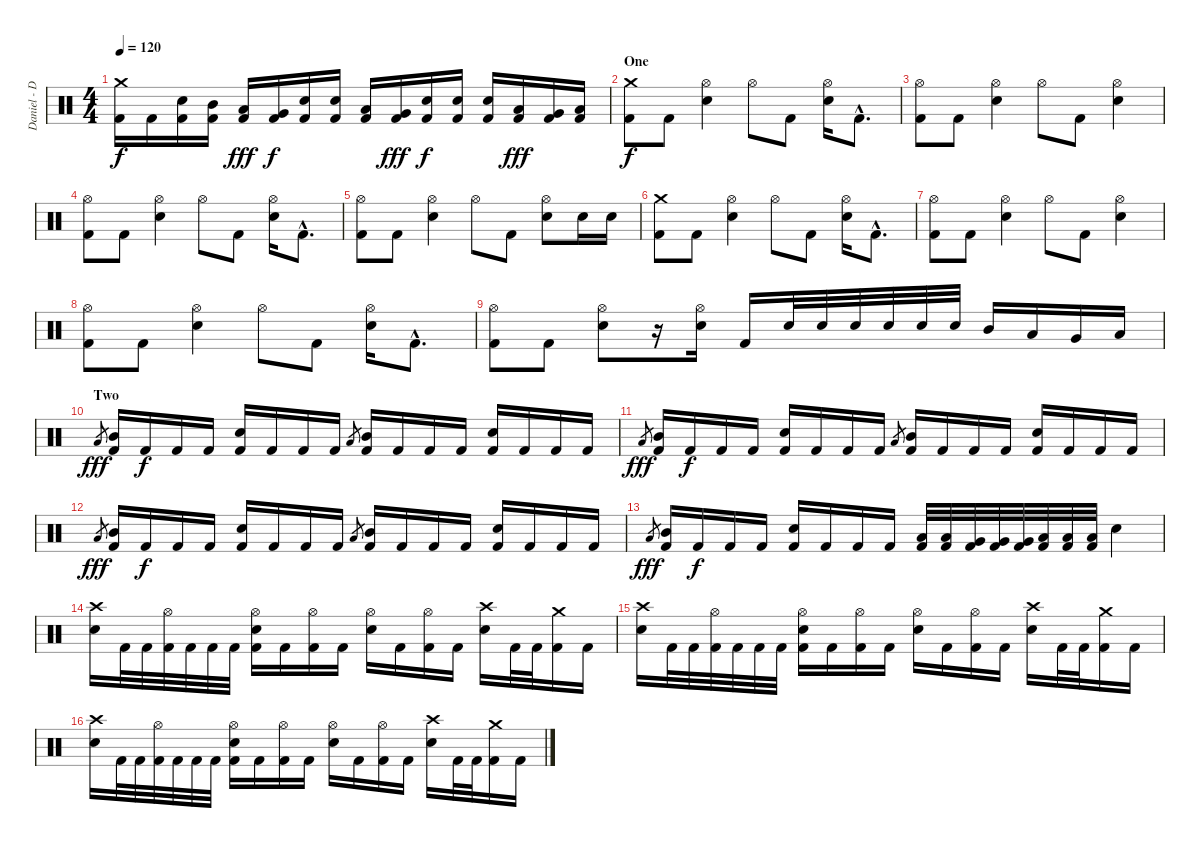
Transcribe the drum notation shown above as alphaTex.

\track ("Daniel - Drums" "Daniel - D") {instrument percussion}
\staff {score}
\articulation defaults
\ts (4 4)
\tempo 120
\clef neutral
\ks c
("Crash medium (hit)" "Kick (hit) 2").16{dy f} "Kick (hit) 2".16 ("Electric Snare (hit)" "Kick (hit) 2").16 ("Mid Tom (hit)" "Kick (hit) 2").16 ("Low Tom (hit)" "Kick (hit) 2").16{dy fff} ("Very Low Tom (hit)" "Kick (hit) 2").16{dy f} ("Electric Snare (hit)" "Kick (hit) 2").16 ("Electric Snare (hit)" "Kick (hit) 2").16 ("Low Tom (hit)" "Kick (hit) 2").16 ("Very Low Tom (hit)" "Kick (hit) 2").16{dy fff} ("Electric Snare (hit)" "Kick (hit) 2").16{dy f} ("Electric Snare (hit)" "Kick (hit) 2").16 ("Electric Snare (hit)" "Kick (hit) 2").16 ("Low Tom (hit)" "Kick (hit) 2").16{dy fff} ("Very Low Tom (hit)" "Kick (hit) 2").16 ("Low Floor Tom (hit)" "Kick (hit) 2").16 |
\section ("" "One")
("Crash medium (hit)" "Kick (hit) 2").8{dy f} "Kick (hit) 2".8 ("Hi-Hat (open)" "Electric Snare (hit)").4 "Hi-Hat (open)".8 "Kick (hit) 2".8 ("Hi-Hat (open)" "Electric Snare (hit)").16 "Kick (hit) 2"{hac}.8{d} |
("Hi-Hat (open)" "Kick (hit) 2").8 "Kick (hit) 2".8 ("Hi-Hat (open)" "Electric Snare (hit)").4 "Hi-Hat (open)".8 "Kick (hit) 2".8 ("Hi-Hat (open)" "Electric Snare (hit)").4 |
("Hi-Hat (open)" "Kick (hit) 2").8 "Kick (hit) 2".8 ("Hi-Hat (open)" "Electric Snare (hit)").4 "Hi-Hat (open)".8 "Kick (hit) 2".8 ("Hi-Hat (open)" "Electric Snare (hit)").16 "Kick (hit) 2"{hac}.8{d} |
("Hi-Hat (open)" "Kick (hit) 2").8 "Kick (hit) 2".8 ("Hi-Hat (open)" "Electric Snare (hit)").4 "Hi-Hat (open)".8 "Kick (hit) 2".8 ("Hi-Hat (open)" "Electric Snare (hit)").8 "Electric Snare (hit)".16 "Electric Snare (hit)".16 |
("Crash medium (hit)" "Kick (hit) 2").8 "Kick (hit) 2".8 ("Hi-Hat (open)" "Electric Snare (hit)").4 "Hi-Hat (open)".8 "Kick (hit) 2".8 ("Hi-Hat (open)" "Electric Snare (hit)").16 "Kick (hit) 2"{hac}.8{d} |
("Hi-Hat (open)" "Kick (hit) 2").8 "Kick (hit) 2".8 ("Hi-Hat (open)" "Electric Snare (hit)").4 "Hi-Hat (open)".8 "Kick (hit) 2".8 ("Hi-Hat (open)" "Electric Snare (hit)").4 |
("Hi-Hat (open)" "Kick (hit) 2").8 "Kick (hit) 2".8 ("Hi-Hat (open)" "Electric Snare (hit)").4 "Hi-Hat (open)".8 "Kick (hit) 2".8 ("Hi-Hat (open)" "Electric Snare (hit)").16 "Kick (hit) 2"{hac}.8{d} |
("Hi-Hat (open)" "Kick (hit) 2").8 "Kick (hit) 2".8 ("Hi-Hat (open)" "Electric Snare (hit)").8 r.16 ("Hi-Hat (open)" "Electric Snare (hit)").16 "Kick (hit) 2".16 "Electric Snare (hit)".32 "Electric Snare (hit)".32 "Electric Snare (hit)".32 "Electric Snare (hit)".32 "Electric Snare (hit)".32 "Electric Snare (hit)".32 "Mid Tom (hit)".16 "Low Tom (hit)".16 "Very Low Tom (hit)".16 "Low Floor Tom (hit)".16 |
\section ("" "Two")
"Low Tom (hit)".8{gr dy fff} ("Mid Tom (hit)" "Kick (hit) 2").16 "Kick (hit) 2".16{dy f} "Kick (hit) 2".16 "Kick (hit) 2".16 ("Electric Snare (hit)" "Kick (hit) 2").16 "Kick (hit) 2".16 "Kick (hit) 2".16 "Kick (hit) 2".16 "Low Tom (hit)".8{gr} ("Mid Tom (hit)" "Kick (hit) 2").16 "Kick (hit) 2".16 "Kick (hit) 2".16 "Kick (hit) 2".16 ("Electric Snare (hit)" "Kick (hit) 2").16 "Kick (hit) 2".16 "Kick (hit) 2".16 "Kick (hit) 2".16 |
"Low Tom (hit)".8{gr dy fff} ("Mid Tom (hit)" "Kick (hit) 2").16 "Kick (hit) 2".16{dy f} "Kick (hit) 2".16 "Kick (hit) 2".16 ("Electric Snare (hit)" "Kick (hit) 2").16 "Kick (hit) 2".16 "Kick (hit) 2".16 "Kick (hit) 2".16 "Low Tom (hit)".8{gr} ("Mid Tom (hit)" "Kick (hit) 2").16 "Kick (hit) 2".16 "Kick (hit) 2".16 "Kick (hit) 2".16 ("Electric Snare (hit)" "Kick (hit) 2").16 "Kick (hit) 2".16 "Kick (hit) 2".16 "Kick (hit) 2".16 |
"Low Tom (hit)".8{gr dy fff} ("Mid Tom (hit)" "Kick (hit) 2").16 "Kick (hit) 2".16{dy f} "Kick (hit) 2".16 "Kick (hit) 2".16 ("Electric Snare (hit)" "Kick (hit) 2").16 "Kick (hit) 2".16 "Kick (hit) 2".16 "Kick (hit) 2".16 "Low Tom (hit)".8{gr} ("Mid Tom (hit)" "Kick (hit) 2").16 "Kick (hit) 2".16 "Kick (hit) 2".16 "Kick (hit) 2".16 ("Electric Snare (hit)" "Kick (hit) 2").16 "Kick (hit) 2".16 "Kick (hit) 2".16 "Kick (hit) 2".16 |
"Low Tom (hit)".8{gr dy fff} ("Mid Tom (hit)" "Kick (hit) 2").16 "Kick (hit) 2".16{dy f} "Kick (hit) 2".16 "Kick (hit) 2".16 ("Electric Snare (hit)" "Kick (hit) 2").16 "Kick (hit) 2".16 "Kick (hit) 2".16 "Kick (hit) 2".16 ("Low Tom (hit)" "Kick (hit) 2").32 ("Low Tom (hit)" "Kick (hit) 2").32 ("Very Low Tom (hit)" "Kick (hit) 2").32 ("Very Low Tom (hit)" "Kick (hit) 2").32 ("Very Low Tom (hit)" "Kick (hit) 2").32 ("Low Floor Tom (hit)" "Kick (hit) 2").32 ("Low Floor Tom (hit)" "Kick (hit) 2").32 ("Low Floor Tom (hit)" "Kick (hit) 2").32 "Electric Snare (hit)".4 |
("Crash high (hit)" "Electric Snare (hit)").16 "Kick (hit) 2".32 "Kick (hit) 2".32 ("Hi-Hat (open)" "Kick (hit) 2").32 "Kick (hit) 2".32 "Kick (hit) 2".32 "Kick (hit) 2".32 ("Hi-Hat (open)" "Electric Snare (hit)" "Kick (hit) 2").16 "Kick (hit) 2".16 ("Hi-Hat (open)" "Kick (hit) 2").16 "Kick (hit) 2".16 ("Hi-Hat (open)" "Electric Snare (hit)").16 "Kick (hit) 2".16 ("Hi-Hat (open)" "Kick (hit) 2").16 "Kick (hit) 2".16 ("Crash high (hit)" "Electric Snare (hit)").16 "Kick (hit) 2".32 "Kick (hit) 2".32 ("Crash medium (hit)" "Kick (hit) 2").16 "Kick (hit) 2".16 |
("Crash high (hit)" "Electric Snare (hit)").16 "Kick (hit) 2".32 "Kick (hit) 2".32 ("Hi-Hat (open)" "Kick (hit) 2").32 "Kick (hit) 2".32 "Kick (hit) 2".32 "Kick (hit) 2".32 ("Hi-Hat (open)" "Electric Snare (hit)" "Kick (hit) 2").16 "Kick (hit) 2".16 ("Hi-Hat (open)" "Kick (hit) 2").16 "Kick (hit) 2".16 ("Hi-Hat (open)" "Electric Snare (hit)").16 "Kick (hit) 2".16 ("Hi-Hat (open)" "Kick (hit) 2").16 "Kick (hit) 2".16 ("Crash high (hit)" "Electric Snare (hit)").16 "Kick (hit) 2".32 "Kick (hit) 2".32 ("Crash medium (hit)" "Kick (hit) 2").16 "Kick (hit) 2".16 |
("Crash high (hit)" "Electric Snare (hit)").16 "Kick (hit) 2".32 "Kick (hit) 2".32 ("Hi-Hat (open)" "Kick (hit) 2").32 "Kick (hit) 2".32 "Kick (hit) 2".32 "Kick (hit) 2".32 ("Hi-Hat (open)" "Electric Snare (hit)" "Kick (hit) 2").16 "Kick (hit) 2".16 ("Hi-Hat (open)" "Kick (hit) 2").16 "Kick (hit) 2".16 ("Hi-Hat (open)" "Electric Snare (hit)").16 "Kick (hit) 2".16 ("Hi-Hat (open)" "Kick (hit) 2").16 "Kick (hit) 2".16 ("Crash high (hit)" "Electric Snare (hit)").16 "Kick (hit) 2".32 "Kick (hit) 2".32 ("Crash medium (hit)" "Kick (hit) 2").16 "Kick (hit) 2".16
